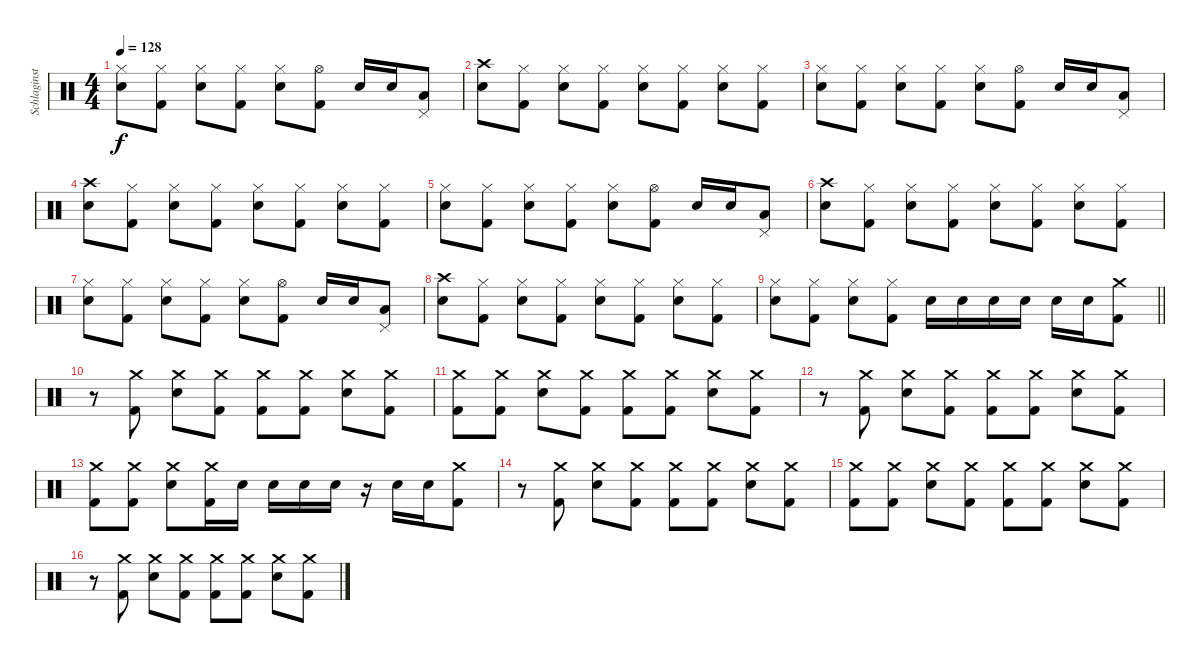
\track ("Schlaginstrumente - Auswahl" "Schlaginst") {instrument percussion}
\staff {score}
\articulation defaults
\ts (4 4)
\tempo 128
\clef neutral
\ks c
("Hi-Hat (closed)" "Snare (hit) 2").8{dy f} ("Hi-Hat (closed)" "Kick (hit) 2").8 ("Hi-Hat (closed)" "Snare (hit) 2").8 ("Hi-Hat (closed)" "Kick (hit) 2").8 ("Hi-Hat (closed)" "Snare (hit) 2").8 ("Hi-Hat (open)" "Kick (hit) 2").8 "Snare (hit) 2".16 "Snare (hit) 2".16 ("Pedal Hi-Hat (hit)" "Low Tom (hit)").8 |
("Crash high (hit)" "Snare (hit) 2").8 ("Hi-Hat (closed)" "Kick (hit) 2").8 ("Hi-Hat (closed)" "Snare (hit) 2").8 ("Hi-Hat (closed)" "Kick (hit) 2").8 ("Hi-Hat (closed)" "Snare (hit) 2").8 ("Hi-Hat (closed)" "Kick (hit) 2").8 ("Hi-Hat (closed)" "Snare (hit) 2").8 ("Hi-Hat (closed)" "Kick (hit) 2").8 |
("Hi-Hat (closed)" "Snare (hit) 2").8 ("Hi-Hat (closed)" "Kick (hit) 2").8 ("Hi-Hat (closed)" "Snare (hit) 2").8 ("Hi-Hat (closed)" "Kick (hit) 2").8 ("Hi-Hat (closed)" "Snare (hit) 2").8 ("Hi-Hat (open)" "Kick (hit) 2").8 "Snare (hit) 2".16 "Snare (hit) 2".16 ("Pedal Hi-Hat (hit)" "Low Tom (hit)").8 |
("Crash high (hit)" "Snare (hit) 2").8 ("Hi-Hat (closed)" "Kick (hit) 2").8 ("Hi-Hat (closed)" "Snare (hit) 2").8 ("Hi-Hat (closed)" "Kick (hit) 2").8 ("Hi-Hat (closed)" "Snare (hit) 2").8 ("Hi-Hat (closed)" "Kick (hit) 2").8 ("Hi-Hat (closed)" "Snare (hit) 2").8 ("Hi-Hat (closed)" "Kick (hit) 2").8 |
("Hi-Hat (closed)" "Snare (hit) 2").8 ("Hi-Hat (closed)" "Kick (hit) 2").8 ("Hi-Hat (closed)" "Snare (hit) 2").8 ("Hi-Hat (closed)" "Kick (hit) 2").8 ("Hi-Hat (closed)" "Snare (hit) 2").8 ("Hi-Hat (open)" "Kick (hit) 2").8 "Snare (hit) 2".16 "Snare (hit) 2".16 ("Pedal Hi-Hat (hit)" "Low Tom (hit)").8 |
("Crash high (hit)" "Snare (hit) 2").8 ("Hi-Hat (closed)" "Kick (hit) 2").8 ("Hi-Hat (closed)" "Snare (hit) 2").8 ("Hi-Hat (closed)" "Kick (hit) 2").8 ("Hi-Hat (closed)" "Snare (hit) 2").8 ("Hi-Hat (closed)" "Kick (hit) 2").8 ("Hi-Hat (closed)" "Snare (hit) 2").8 ("Hi-Hat (closed)" "Kick (hit) 2").8 |
("Hi-Hat (closed)" "Snare (hit) 2").8 ("Hi-Hat (closed)" "Kick (hit) 2").8 ("Hi-Hat (closed)" "Snare (hit) 2").8 ("Hi-Hat (closed)" "Kick (hit) 2").8 ("Hi-Hat (closed)" "Snare (hit) 2").8 ("Hi-Hat (open)" "Kick (hit) 2").8 "Snare (hit) 2".16 "Snare (hit) 2".16 ("Pedal Hi-Hat (hit)" "Low Tom (hit)").8 |
("Crash high (hit)" "Snare (hit) 2").8 ("Hi-Hat (closed)" "Kick (hit) 2").8 ("Hi-Hat (closed)" "Snare (hit) 2").8 ("Hi-Hat (closed)" "Kick (hit) 2").8 ("Hi-Hat (closed)" "Snare (hit) 2").8 ("Hi-Hat (closed)" "Kick (hit) 2").8 ("Hi-Hat (closed)" "Snare (hit) 2").8 ("Hi-Hat (closed)" "Kick (hit) 2").8 |
\barLineRight lightlight
("Hi-Hat (closed)" "Snare (hit) 2").8 ("Hi-Hat (closed)" "Kick (hit) 2").8 ("Hi-Hat (closed)" "Snare (hit) 2").8 ("Hi-Hat (closed)" "Kick (hit) 2").8 "Snare (hit) 2".16 "Snare (hit) 2".16 "Snare (hit) 2".16 "Snare (hit) 2".16 "Snare (hit) 2".16 "Snare (hit) 2".16 ("Crash medium (hit)" "Kick (hit) 2").8 |
r.8 ("Crash medium (hit)" "Kick (hit) 2").8 ("Crash medium (hit)" "Snare (hit) 2").8 ("Crash medium (hit)" "Kick (hit) 2").8 ("Crash medium (hit)" "Kick (hit) 2").8 ("Crash medium (hit)" "Kick (hit) 2").8 ("Crash medium (hit)" "Snare (hit) 2").8 ("Crash medium (hit)" "Kick (hit) 2").8 |
("Crash medium (hit)" "Kick (hit) 2").8 ("Crash medium (hit)" "Kick (hit) 2").8 ("Crash medium (hit)" "Snare (hit) 2").8 ("Crash medium (hit)" "Kick (hit) 2").8 ("Crash medium (hit)" "Kick (hit) 2").8 ("Crash medium (hit)" "Kick (hit) 2").8 ("Crash medium (hit)" "Snare (hit) 2").8 ("Crash medium (hit)" "Kick (hit) 2").8 |
r.8 ("Crash medium (hit)" "Kick (hit) 2").8 ("Crash medium (hit)" "Snare (hit) 2").8 ("Crash medium (hit)" "Kick (hit) 2").8 ("Crash medium (hit)" "Kick (hit) 2").8 ("Crash medium (hit)" "Kick (hit) 2").8 ("Crash medium (hit)" "Snare (hit) 2").8 ("Crash medium (hit)" "Kick (hit) 2").8 |
("Crash medium (hit)" "Kick (hit) 2").8 ("Crash medium (hit)" "Kick (hit) 2").8 ("Crash medium (hit)" "Snare (hit) 2").8 ("Crash medium (hit)" "Kick (hit) 2").16 "Snare (hit) 2".16 "Snare (hit) 2".16 "Snare (hit) 2".16 "Snare (hit) 2".16 r.16 "Snare (hit) 2".16 "Snare (hit) 2".16 ("Crash medium (hit)" "Kick (hit) 2").8 |
r.8 ("Crash medium (hit)" "Kick (hit) 2").8 ("Crash medium (hit)" "Snare (hit) 2").8 ("Crash medium (hit)" "Kick (hit) 2").8 ("Crash medium (hit)" "Kick (hit) 2").8 ("Crash medium (hit)" "Kick (hit) 2").8 ("Crash medium (hit)" "Snare (hit) 2").8 ("Crash medium (hit)" "Kick (hit) 2").8 |
("Crash medium (hit)" "Kick (hit) 2").8 ("Crash medium (hit)" "Kick (hit) 2").8 ("Crash medium (hit)" "Snare (hit) 2").8 ("Crash medium (hit)" "Kick (hit) 2").8 ("Crash medium (hit)" "Kick (hit) 2").8 ("Crash medium (hit)" "Kick (hit) 2").8 ("Crash medium (hit)" "Snare (hit) 2").8 ("Crash medium (hit)" "Kick (hit) 2").8 |
r.8 ("Crash medium (hit)" "Kick (hit) 2").8 ("Crash medium (hit)" "Snare (hit) 2").8 ("Crash medium (hit)" "Kick (hit) 2").8 ("Crash medium (hit)" "Kick (hit) 2").8 ("Crash medium (hit)" "Kick (hit) 2").8 ("Crash medium (hit)" "Snare (hit) 2").8 ("Crash medium (hit)" "Kick (hit) 2").8
